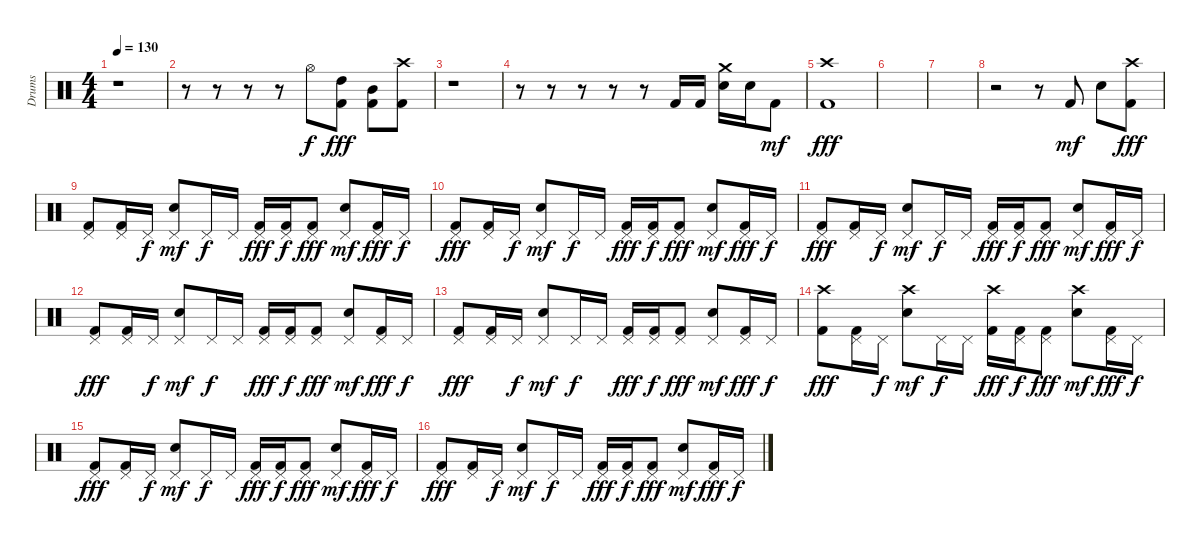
\track ("Drums" "Drums") {instrument percussion}
\staff {score}
\articulation defaults
\ts (4 4)
\tempo 130
\clef neutral
\ks c
r.1{dy f} |
r.8 r.8 r.8 r.8 "Hi-Hat (open)".8 ("High Tom (hit)" "Kick (hit) 2").8{dy fff} ("Mid Tom (hit)" "Kick (hit) 2").8 ("Crash high (hit)" "Kick (hit) 2").8 |
r.1 |
r.8 r.8 r.8 r.8 r.8 "Kick (hit) 2".16 "Kick (hit) 2".16 ("Crash medium (hit)" "Electric Snare (hit)").16 "Electric Snare (hit)".16 "Kick (hit) 2".8{dy mf} |
("Crash high (hit)" "Kick (hit) 2").1{dy fff} |
|
|
r.2 r.8 "Kick (hit) 2".8{dy mf} "Electric Snare (hit)".8 ("Crash high (hit)" "Kick (hit) 2").8{dy fff} |
("Pedal Hi-Hat (hit)" "Kick (hit) 2").8 ("Pedal Hi-Hat (hit)" "Kick (hit) 2").16 "Pedal Hi-Hat (hit)".16{dy f} ("Pedal Hi-Hat (hit)" "Electric Snare (hit)").8{dy mf} "Pedal Hi-Hat (hit)".16{dy f} "Pedal Hi-Hat (hit)".16 ("Pedal Hi-Hat (hit)" "Kick (hit) 2").16{dy fff} ("Pedal Hi-Hat (hit)" "Kick (hit) 2").16{dy f} ("Pedal Hi-Hat (hit)" "Kick (hit) 2").8{dy fff} ("Pedal Hi-Hat (hit)" "Electric Snare (hit)").8{dy mf} ("Pedal Hi-Hat (hit)" "Kick (hit) 2").16{dy fff} "Pedal Hi-Hat (hit)".16{dy f} |
("Pedal Hi-Hat (hit)" "Kick (hit) 2").8{dy fff} ("Pedal Hi-Hat (hit)" "Kick (hit) 2").16 "Pedal Hi-Hat (hit)".16{dy f} ("Pedal Hi-Hat (hit)" "Electric Snare (hit)").8{dy mf} "Pedal Hi-Hat (hit)".16{dy f} "Pedal Hi-Hat (hit)".16 ("Pedal Hi-Hat (hit)" "Kick (hit) 2").16{dy fff} ("Pedal Hi-Hat (hit)" "Kick (hit) 2").16{dy f} ("Pedal Hi-Hat (hit)" "Kick (hit) 2").8{dy fff} ("Pedal Hi-Hat (hit)" "Electric Snare (hit)").8{dy mf} ("Pedal Hi-Hat (hit)" "Kick (hit) 2").16{dy fff} "Pedal Hi-Hat (hit)".16{dy f} |
("Pedal Hi-Hat (hit)" "Kick (hit) 2").8{dy fff} ("Pedal Hi-Hat (hit)" "Kick (hit) 2").16 "Pedal Hi-Hat (hit)".16{dy f} ("Pedal Hi-Hat (hit)" "Electric Snare (hit)").8{dy mf} "Pedal Hi-Hat (hit)".16{dy f} "Pedal Hi-Hat (hit)".16 ("Pedal Hi-Hat (hit)" "Kick (hit) 2").16{dy fff} ("Pedal Hi-Hat (hit)" "Kick (hit) 2").16{dy f} ("Pedal Hi-Hat (hit)" "Kick (hit) 2").8{dy fff} ("Pedal Hi-Hat (hit)" "Electric Snare (hit)").8{dy mf} ("Pedal Hi-Hat (hit)" "Kick (hit) 2").16{dy fff} "Pedal Hi-Hat (hit)".16{dy f} |
("Pedal Hi-Hat (hit)" "Kick (hit) 2").8{dy fff} ("Pedal Hi-Hat (hit)" "Kick (hit) 2").16 "Pedal Hi-Hat (hit)".16{dy f} ("Pedal Hi-Hat (hit)" "Electric Snare (hit)").8{dy mf} "Pedal Hi-Hat (hit)".16{dy f} "Pedal Hi-Hat (hit)".16 ("Pedal Hi-Hat (hit)" "Kick (hit) 2").16{dy fff} ("Pedal Hi-Hat (hit)" "Kick (hit) 2").16{dy f} ("Pedal Hi-Hat (hit)" "Kick (hit) 2").8{dy fff} ("Pedal Hi-Hat (hit)" "Electric Snare (hit)").8{dy mf} ("Pedal Hi-Hat (hit)" "Kick (hit) 2").16{dy fff} "Pedal Hi-Hat (hit)".16{dy f} |
("Pedal Hi-Hat (hit)" "Kick (hit) 2").8{dy fff} ("Pedal Hi-Hat (hit)" "Kick (hit) 2").16 "Pedal Hi-Hat (hit)".16{dy f} ("Pedal Hi-Hat (hit)" "Electric Snare (hit)").8{dy mf} "Pedal Hi-Hat (hit)".16{dy f} "Pedal Hi-Hat (hit)".16 ("Pedal Hi-Hat (hit)" "Kick (hit) 2").16{dy fff} ("Pedal Hi-Hat (hit)" "Kick (hit) 2").16{dy f} ("Pedal Hi-Hat (hit)" "Kick (hit) 2").8{dy fff} ("Pedal Hi-Hat (hit)" "Electric Snare (hit)").8{dy mf} ("Pedal Hi-Hat (hit)" "Kick (hit) 2").16{dy fff} "Pedal Hi-Hat (hit)".16{dy f} |
("Crash high (hit)" "Kick (hit) 2").8{dy fff} ("Pedal Hi-Hat (hit)" "Kick (hit) 2").16 "Pedal Hi-Hat (hit)".16{dy f} ("Crash high (hit)" "Electric Snare (hit)").8{dy mf} "Pedal Hi-Hat (hit)".16{dy f} "Pedal Hi-Hat (hit)".16 ("Crash high (hit)" "Kick (hit) 2").16{dy fff} ("Pedal Hi-Hat (hit)" "Kick (hit) 2").16{dy f} ("Pedal Hi-Hat (hit)" "Kick (hit) 2").8{dy fff} ("Crash high (hit)" "Electric Snare (hit)").8{dy mf} ("Pedal Hi-Hat (hit)" "Kick (hit) 2").16{dy fff} "Pedal Hi-Hat (hit)".16{dy f} |
("Pedal Hi-Hat (hit)" "Kick (hit) 2").8{dy fff} ("Pedal Hi-Hat (hit)" "Kick (hit) 2").16 "Pedal Hi-Hat (hit)".16{dy f} ("Pedal Hi-Hat (hit)" "Electric Snare (hit)").8{dy mf} "Pedal Hi-Hat (hit)".16{dy f} "Pedal Hi-Hat (hit)".16 ("Pedal Hi-Hat (hit)" "Kick (hit) 2").16{dy fff} ("Pedal Hi-Hat (hit)" "Kick (hit) 2").16{dy f} ("Pedal Hi-Hat (hit)" "Kick (hit) 2").8{dy fff} ("Pedal Hi-Hat (hit)" "Electric Snare (hit)").8{dy mf} ("Pedal Hi-Hat (hit)" "Kick (hit) 2").16{dy fff} "Pedal Hi-Hat (hit)".16{dy f} |
("Pedal Hi-Hat (hit)" "Kick (hit) 2").8{dy fff} ("Pedal Hi-Hat (hit)" "Kick (hit) 2").16 "Pedal Hi-Hat (hit)".16{dy f} ("Pedal Hi-Hat (hit)" "Electric Snare (hit)").8{dy mf} "Pedal Hi-Hat (hit)".16{dy f} "Pedal Hi-Hat (hit)".16 ("Pedal Hi-Hat (hit)" "Kick (hit) 2").16{dy fff} ("Pedal Hi-Hat (hit)" "Kick (hit) 2").16{dy f} ("Pedal Hi-Hat (hit)" "Kick (hit) 2").8{dy fff} ("Pedal Hi-Hat (hit)" "Electric Snare (hit)").8{dy mf} ("Pedal Hi-Hat (hit)" "Kick (hit) 2").16{dy fff} "Pedal Hi-Hat (hit)".16{dy f}
